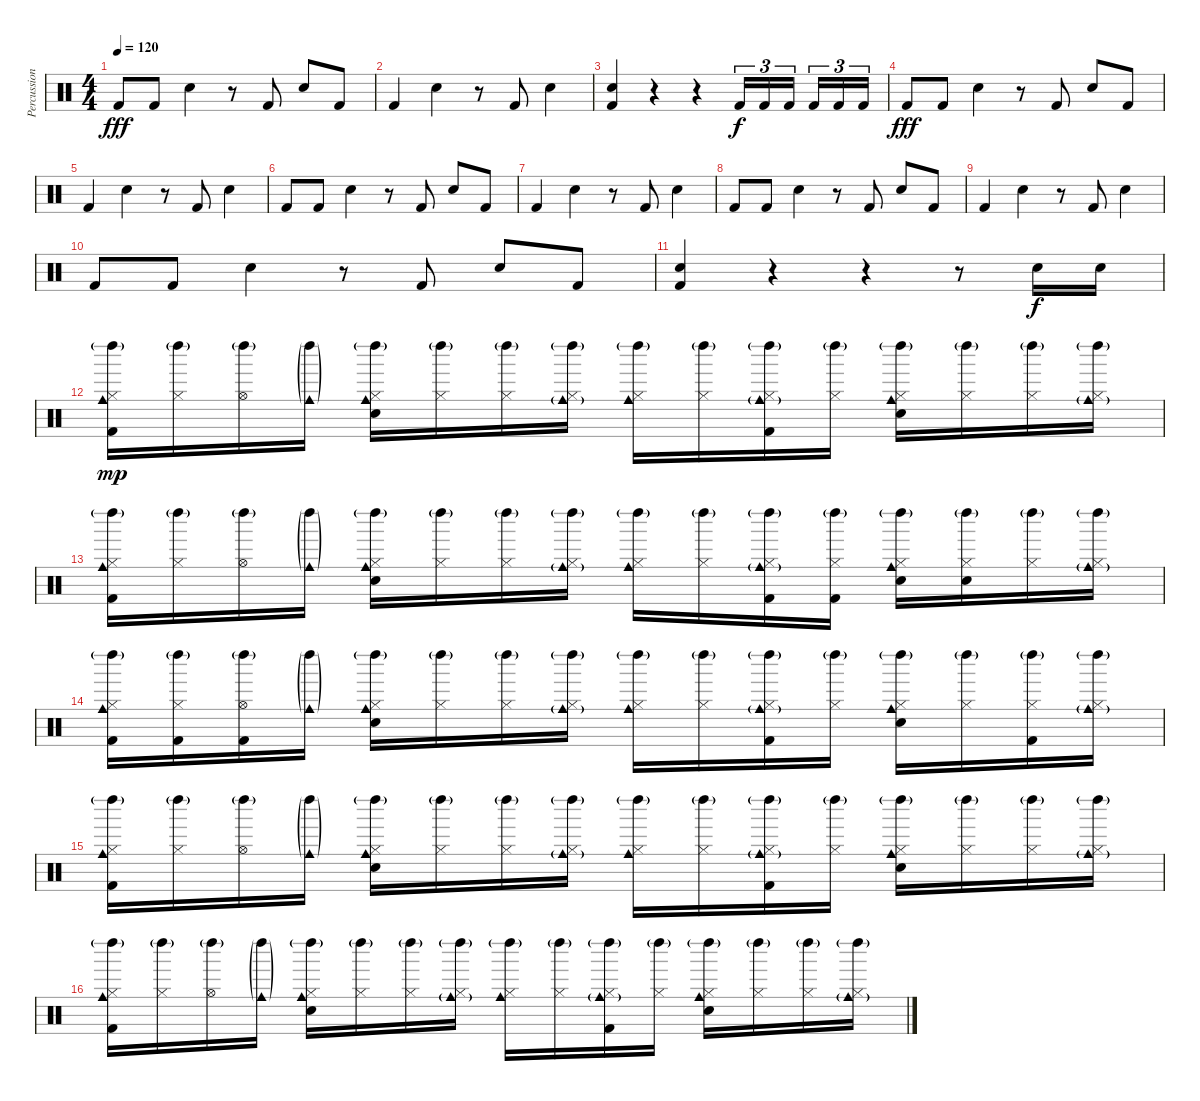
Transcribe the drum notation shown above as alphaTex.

\track ("Percussion" "Percussion") {instrument percussion}
\staff {score}
\articulation defaults
\ts (4 4)
\tempo 120
\clef neutral
\ks c "Kick (hit) 2".8{dy fff} "Kick (hit) 2".8 "Electric Snare (hit)".4
r.8 "Kick (hit) 2".8 "Electric Snare (hit)".8 "Kick (hit) 2".8 |
"Kick (hit) 2".4 "Electric Snare (hit)".4 r.8 "Kick (hit) 2".8 "Electric Snare (hit)".4 |
("Kick (hit) 2" "Electric Snare (hit)").4 r.4 r.4 "Kick (hit) 2".16{tu (3 2) dy f} "Kick (hit) 2".16{tu (3 2)} "Kick (hit) 2".16{tu (3 2)} "Kick (hit) 2".16{tu (3 2)} "Kick (hit) 2".16{tu (3 2)} "Kick (hit) 2".16{tu (3 2)} |
"Kick (hit) 2".8{dy fff} "Kick (hit) 2".8 "Electric Snare (hit)".4 r.8 "Kick (hit) 2".8 "Electric Snare (hit)".8 "Kick (hit) 2".8 |
"Kick (hit) 2".4 "Electric Snare (hit)".4 r.8 "Kick (hit) 2".8 "Electric Snare (hit)".4 |
"Kick (hit) 2".8 "Kick (hit) 2".8 "Electric Snare (hit)".4 r.8 "Kick (hit) 2".8 "Electric Snare (hit)".8 "Kick (hit) 2".8 |
"Kick (hit) 2".4 "Electric Snare (hit)".4 r.8 "Kick (hit) 2".8 "Electric Snare (hit)".4 |
"Kick (hit) 2".8 "Kick (hit) 2".8 "Electric Snare (hit)".4 r.8 "Kick (hit) 2".8 "Electric Snare (hit)".8 "Kick (hit) 2".8 |
"Kick (hit) 2".4 "Electric Snare (hit)".4 r.8 "Kick (hit) 2".8 "Electric Snare (hit)".4 |
"Kick (hit) 2".8 "Kick (hit) 2".8 "Electric Snare (hit)".4 r.8 "Kick (hit) 2".8 "Electric Snare (hit)".8 "Kick (hit) 2".8 |
("Kick (hit) 2" "Electric Snare (hit)").4 r.4 r.4 r.8 "Electric Snare (hit)".16{dy f} "Electric Snare (hit)".16 |
("Kick (hit) 2" "Hi-Hat (closed)" "Cowbell medium (hit)" "Left Maraca (hit)"{g}).16{dy mp} ("Hi-Hat (closed)" "Left Maraca (hit)"{g}).16 ("Hi-Hat (open)" "Left Maraca (hit)"{g}).16 ("Cowbell medium (hit)"{g} "Left Maraca (hit)"{g}).16 ("Electric Snare (hit)" "Hi-Hat (closed)" "Cowbell medium (hit)" "Left Maraca (hit)"{g}).16 ("Hi-Hat (closed)" "Left Maraca (hit)"{g}).16 ("Hi-Hat (closed)" "Left Maraca (hit)"{g}).16 ("Hi-Hat (closed)" "Cowbell medium (hit)"{g} "Left Maraca (hit)"{g}).16 ("Hi-Hat (closed)" "Cowbell medium (hit)" "Left Maraca (hit)"{g}).16 ("Hi-Hat (closed)" "Left Maraca (hit)"{g}).16 ("Kick (hit) 2" "Hi-Hat (closed)" "Cowbell medium (hit)"{g} "Left Maraca (hit)"{g}).16 ("Hi-Hat (closed)" "Left Maraca (hit)"{g}).16 ("Electric Snare (hit)" "Hi-Hat (closed)" "Cowbell medium (hit)" "Left Maraca (hit)"{g}).16 ("Hi-Hat (closed)" "Left Maraca (hit)"{g}).16 ("Hi-Hat (closed)" "Left Maraca (hit)"{g}).16 ("Hi-Hat (closed)" "Cowbell medium (hit)"{g} "Left Maraca (hit)"{g}).16 |
("Kick (hit) 2" "Hi-Hat (closed)" "Cowbell medium (hit)" "Left Maraca (hit)"{g}).16 ("Hi-Hat (closed)" "Left Maraca (hit)"{g}).16 ("Hi-Hat (open)" "Left Maraca (hit)"{g}).16 ("Cowbell medium (hit)"{g} "Left Maraca (hit)"{g}).16 ("Electric Snare (hit)" "Hi-Hat (closed)" "Cowbell medium (hit)" "Left Maraca (hit)"{g}).16 ("Hi-Hat (closed)" "Left Maraca (hit)"{g}).16 ("Hi-Hat (closed)" "Left Maraca (hit)"{g}).16 ("Hi-Hat (closed)" "Cowbell medium (hit)"{g} "Left Maraca (hit)"{g}).16 ("Hi-Hat (closed)" "Cowbell medium (hit)" "Left Maraca (hit)"{g}).16 ("Hi-Hat (closed)" "Left Maraca (hit)"{g}).16 ("Kick (hit) 2" "Hi-Hat (closed)" "Cowbell medium (hit)"{g} "Left Maraca (hit)"{g}).16 ("Kick (hit) 2" "Hi-Hat (closed)" "Left Maraca (hit)"{g}).16 ("Electric Snare (hit)" "Hi-Hat (closed)" "Cowbell medium (hit)" "Left Maraca (hit)"{g}).16 ("Electric Snare (hit)" "Hi-Hat (closed)" "Left Maraca (hit)"{g}).16 ("Hi-Hat (closed)" "Left Maraca (hit)"{g}).16 ("Hi-Hat (closed)" "Cowbell medium (hit)"{g} "Left Maraca (hit)"{g}).16 |
("Kick (hit) 2" "Hi-Hat (closed)" "Cowbell medium (hit)" "Left Maraca (hit)"{g}).16 ("Kick (hit) 2" "Hi-Hat (closed)" "Left Maraca (hit)"{g}).16 ("Kick (hit) 2" "Hi-Hat (open)" "Left Maraca (hit)"{g}).16 ("Cowbell medium (hit)"{g} "Left Maraca (hit)"{g}).16 ("Electric Snare (hit)" "Hi-Hat (closed)" "Cowbell medium (hit)" "Left Maraca (hit)"{g}).16 ("Hi-Hat (closed)" "Left Maraca (hit)"{g}).16 ("Hi-Hat (closed)" "Left Maraca (hit)"{g}).16 ("Hi-Hat (closed)" "Cowbell medium (hit)"{g} "Left Maraca (hit)"{g}).16 ("Hi-Hat (closed)" "Cowbell medium (hit)" "Left Maraca (hit)"{g}).16 ("Hi-Hat (closed)" "Left Maraca (hit)"{g}).16 ("Kick (hit) 2" "Hi-Hat (closed)" "Cowbell medium (hit)"{g} "Left Maraca (hit)"{g}).16 ("Hi-Hat (closed)" "Left Maraca (hit)"{g}).16 ("Electric Snare (hit)" "Hi-Hat (closed)" "Cowbell medium (hit)" "Left Maraca (hit)"{g}).16 ("Hi-Hat (closed)" "Left Maraca (hit)"{g}).16 ("Kick (hit) 2" "Hi-Hat (closed)" "Left Maraca (hit)"{g}).16 ("Hi-Hat (closed)" "Cowbell medium (hit)"{g} "Left Maraca (hit)"{g}).16 |
("Kick (hit) 2" "Hi-Hat (closed)" "Cowbell medium (hit)" "Left Maraca (hit)"{g}).16 ("Hi-Hat (closed)" "Left Maraca (hit)"{g}).16 ("Hi-Hat (open)" "Left Maraca (hit)"{g}).16 ("Cowbell medium (hit)"{g} "Left Maraca (hit)"{g}).16 ("Electric Snare (hit)" "Hi-Hat (closed)" "Cowbell medium (hit)" "Left Maraca (hit)"{g}).16 ("Hi-Hat (closed)" "Left Maraca (hit)"{g}).16 ("Hi-Hat (closed)" "Left Maraca (hit)"{g}).16 ("Hi-Hat (closed)" "Cowbell medium (hit)"{g} "Left Maraca (hit)"{g}).16 ("Hi-Hat (closed)" "Cowbell medium (hit)" "Left Maraca (hit)"{g}).16 ("Hi-Hat (closed)" "Left Maraca (hit)"{g}).16 ("Kick (hit) 2" "Hi-Hat (closed)" "Cowbell medium (hit)"{g} "Left Maraca (hit)"{g}).16 ("Hi-Hat (closed)" "Left Maraca (hit)"{g}).16 ("Electric Snare (hit)" "Hi-Hat (closed)" "Cowbell medium (hit)" "Left Maraca (hit)"{g}).16 ("Hi-Hat (closed)" "Left Maraca (hit)"{g}).16 ("Hi-Hat (closed)" "Left Maraca (hit)"{g}).16 ("Hi-Hat (closed)" "Cowbell medium (hit)"{g} "Left Maraca (hit)"{g}).16 |
("Kick (hit) 2" "Hi-Hat (closed)" "Cowbell medium (hit)" "Left Maraca (hit)"{g}).16 ("Hi-Hat (closed)" "Left Maraca (hit)"{g}).16 ("Hi-Hat (open)" "Left Maraca (hit)"{g}).16 ("Cowbell medium (hit)"{g} "Left Maraca (hit)"{g}).16 ("Electric Snare (hit)" "Hi-Hat (closed)" "Cowbell medium (hit)" "Left Maraca (hit)"{g}).16 ("Hi-Hat (closed)" "Left Maraca (hit)"{g}).16 ("Hi-Hat (closed)" "Left Maraca (hit)"{g}).16 ("Hi-Hat (closed)" "Cowbell medium (hit)"{g} "Left Maraca (hit)"{g}).16 ("Hi-Hat (closed)" "Cowbell medium (hit)" "Left Maraca (hit)"{g}).16 ("Hi-Hat (closed)" "Left Maraca (hit)"{g}).16 ("Kick (hit) 2" "Hi-Hat (closed)" "Cowbell medium (hit)"{g} "Left Maraca (hit)"{g}).16 ("Hi-Hat (closed)" "Left Maraca (hit)"{g}).16 ("Electric Snare (hit)" "Hi-Hat (closed)" "Cowbell medium (hit)" "Left Maraca (hit)"{g}).16 ("Hi-Hat (closed)" "Left Maraca (hit)"{g}).16 ("Hi-Hat (closed)" "Left Maraca (hit)"{g}).16 ("Hi-Hat (closed)" "Cowbell medium (hit)"{g} "Left Maraca (hit)"{g}).16
